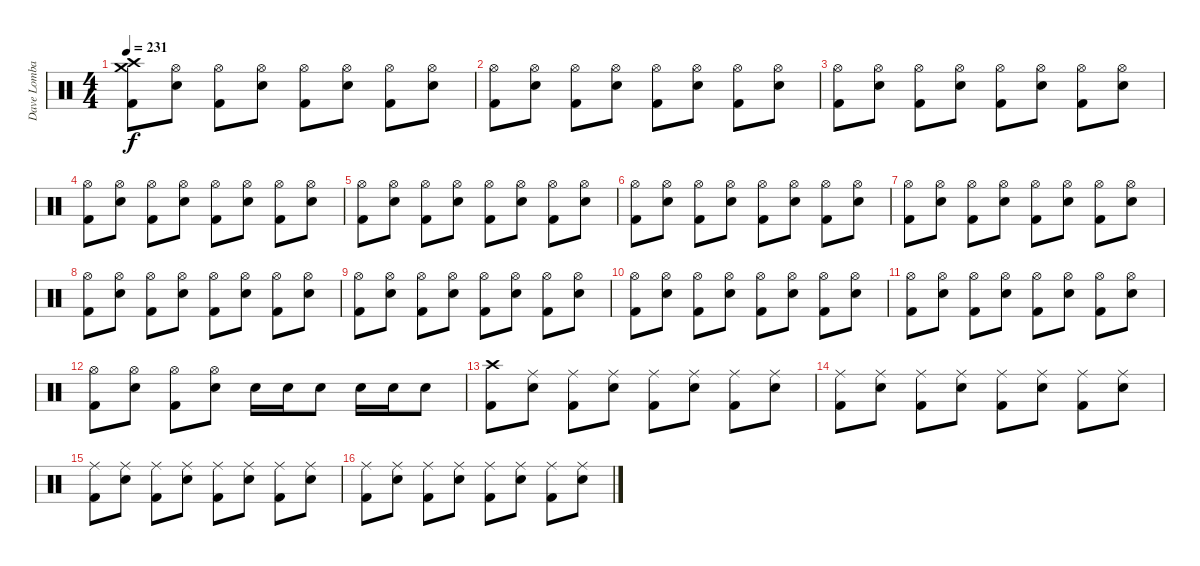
\track ("Dave Lombardo" "Dave Lomba") {instrument percussion}
\staff {score}
\articulation defaults
\ts (4 4)
\tempo 231
\clef neutral
\ks c
("Crash high (hit)" "Kick (hit) 2" "Crash medium (hit)").8{dy f} ("Electric Snare (hit)" "Hi-Hat (open)").8 ("Kick (hit) 2" "Hi-Hat (open)").8 ("Electric Snare (hit)" "Hi-Hat (open)").8 ("Kick (hit) 2" "Hi-Hat (open)").8 ("Electric Snare (hit)" "Hi-Hat (open)").8 ("Kick (hit) 2" "Hi-Hat (open)").8 ("Electric Snare (hit)" "Hi-Hat (open)").8 |
("Hi-Hat (open)" "Kick (hit) 2").8 ("Electric Snare (hit)" "Hi-Hat (open)").8 ("Kick (hit) 2" "Hi-Hat (open)").8 ("Electric Snare (hit)" "Hi-Hat (open)").8 ("Kick (hit) 2" "Hi-Hat (open)").8 ("Electric Snare (hit)" "Hi-Hat (open)").8 ("Kick (hit) 2" "Hi-Hat (open)").8 ("Electric Snare (hit)" "Hi-Hat (open)").8 |
("Hi-Hat (open)" "Kick (hit) 2").8 ("Electric Snare (hit)" "Hi-Hat (open)").8 ("Kick (hit) 2" "Hi-Hat (open)").8 ("Electric Snare (hit)" "Hi-Hat (open)").8 ("Kick (hit) 2" "Hi-Hat (open)").8 ("Electric Snare (hit)" "Hi-Hat (open)").8 ("Kick (hit) 2" "Hi-Hat (open)").8 ("Electric Snare (hit)" "Hi-Hat (open)").8 |
("Hi-Hat (open)" "Kick (hit) 2").8 ("Electric Snare (hit)" "Hi-Hat (open)").8 ("Kick (hit) 2" "Hi-Hat (open)").8 ("Electric Snare (hit)" "Hi-Hat (open)").8 ("Kick (hit) 2" "Hi-Hat (open)").8 ("Electric Snare (hit)" "Hi-Hat (open)").8 ("Kick (hit) 2" "Hi-Hat (open)").8 ("Electric Snare (hit)" "Hi-Hat (open)").8 |
("Hi-Hat (open)" "Kick (hit) 2").8 ("Electric Snare (hit)" "Hi-Hat (open)").8 ("Kick (hit) 2" "Hi-Hat (open)").8 ("Electric Snare (hit)" "Hi-Hat (open)").8 ("Kick (hit) 2" "Hi-Hat (open)").8 ("Electric Snare (hit)" "Hi-Hat (open)").8 ("Kick (hit) 2" "Hi-Hat (open)").8 ("Electric Snare (hit)" "Hi-Hat (open)").8 |
("Hi-Hat (open)" "Kick (hit) 2").8 ("Electric Snare (hit)" "Hi-Hat (open)").8 ("Kick (hit) 2" "Hi-Hat (open)").8 ("Electric Snare (hit)" "Hi-Hat (open)").8 ("Kick (hit) 2" "Hi-Hat (open)").8 ("Electric Snare (hit)" "Hi-Hat (open)").8 ("Kick (hit) 2" "Hi-Hat (open)").8 ("Electric Snare (hit)" "Hi-Hat (open)").8 |
("Hi-Hat (open)" "Kick (hit) 2").8 ("Electric Snare (hit)" "Hi-Hat (open)").8 ("Kick (hit) 2" "Hi-Hat (open)").8 ("Electric Snare (hit)" "Hi-Hat (open)").8 ("Kick (hit) 2" "Hi-Hat (open)").8 ("Electric Snare (hit)" "Hi-Hat (open)").8 ("Kick (hit) 2" "Hi-Hat (open)").8 ("Electric Snare (hit)" "Hi-Hat (open)").8 |
("Hi-Hat (open)" "Kick (hit) 2").8 ("Electric Snare (hit)" "Hi-Hat (open)").8 ("Kick (hit) 2" "Hi-Hat (open)").8 ("Electric Snare (hit)" "Hi-Hat (open)").8 ("Kick (hit) 2" "Hi-Hat (open)").8 ("Electric Snare (hit)" "Hi-Hat (open)").8 ("Kick (hit) 2" "Hi-Hat (open)").8 ("Electric Snare (hit)" "Hi-Hat (open)").8 |
("Hi-Hat (open)" "Kick (hit) 2").8 ("Electric Snare (hit)" "Hi-Hat (open)").8 ("Kick (hit) 2" "Hi-Hat (open)").8 ("Electric Snare (hit)" "Hi-Hat (open)").8 ("Kick (hit) 2" "Hi-Hat (open)").8 ("Electric Snare (hit)" "Hi-Hat (open)").8 ("Kick (hit) 2" "Hi-Hat (open)").8 ("Electric Snare (hit)" "Hi-Hat (open)").8 |
("Hi-Hat (open)" "Kick (hit) 2").8 ("Electric Snare (hit)" "Hi-Hat (open)").8 ("Kick (hit) 2" "Hi-Hat (open)").8 ("Electric Snare (hit)" "Hi-Hat (open)").8 ("Kick (hit) 2" "Hi-Hat (open)").8 ("Electric Snare (hit)" "Hi-Hat (open)").8 ("Kick (hit) 2" "Hi-Hat (open)").8 ("Electric Snare (hit)" "Hi-Hat (open)").8 |
("Hi-Hat (open)" "Kick (hit) 2").8 ("Electric Snare (hit)" "Hi-Hat (open)").8 ("Kick (hit) 2" "Hi-Hat (open)").8 ("Electric Snare (hit)" "Hi-Hat (open)").8 ("Kick (hit) 2" "Hi-Hat (open)").8 ("Electric Snare (hit)" "Hi-Hat (open)").8 ("Kick (hit) 2" "Hi-Hat (open)").8 ("Electric Snare (hit)" "Hi-Hat (open)").8 |
("Hi-Hat (open)" "Kick (hit) 2").8 ("Electric Snare (hit)" "Hi-Hat (open)").8 ("Kick (hit) 2" "Hi-Hat (open)").8 ("Electric Snare (hit)" "Hi-Hat (open)").8 "Electric Snare (hit)".16 "Electric Snare (hit)".16 "Electric Snare (hit)".8 "Electric Snare (hit)".16 "Electric Snare (hit)".16 "Electric Snare (hit)".8 |
("Kick (hit) 2" "Crash high (hit)").8 ("Ride (middle)" "Electric Snare (hit)").8 ("Ride (middle)" "Kick (hit) 2").8 ("Ride (middle)" "Electric Snare (hit)").8 ("Ride (middle)" "Kick (hit) 2").8 ("Ride (middle)" "Electric Snare (hit)").8 ("Ride (middle)" "Kick (hit) 2").8 ("Ride (middle)" "Electric Snare (hit)").8 |
("Ride (middle)" "Kick (hit) 2").8 ("Ride (middle)" "Electric Snare (hit)").8 ("Ride (middle)" "Kick (hit) 2").8 ("Ride (middle)" "Electric Snare (hit)").8 ("Ride (middle)" "Kick (hit) 2").8 ("Ride (middle)" "Electric Snare (hit)").8 ("Ride (middle)" "Kick (hit) 2").8 ("Ride (middle)" "Electric Snare (hit)").8 |
("Ride (middle)" "Kick (hit) 2").8 ("Ride (middle)" "Electric Snare (hit)").8 ("Ride (middle)" "Kick (hit) 2").8 ("Ride (middle)" "Electric Snare (hit)").8 ("Ride (middle)" "Kick (hit) 2").8 ("Ride (middle)" "Electric Snare (hit)").8 ("Ride (middle)" "Kick (hit) 2").8 ("Ride (middle)" "Electric Snare (hit)").8 |
("Ride (middle)" "Kick (hit) 2").8 ("Ride (middle)" "Electric Snare (hit)").8 ("Ride (middle)" "Kick (hit) 2").8 ("Ride (middle)" "Electric Snare (hit)").8 ("Ride (middle)" "Kick (hit) 2").8 ("Ride (middle)" "Electric Snare (hit)").8 ("Ride (middle)" "Kick (hit) 2").8 ("Ride (middle)" "Electric Snare (hit)").8
